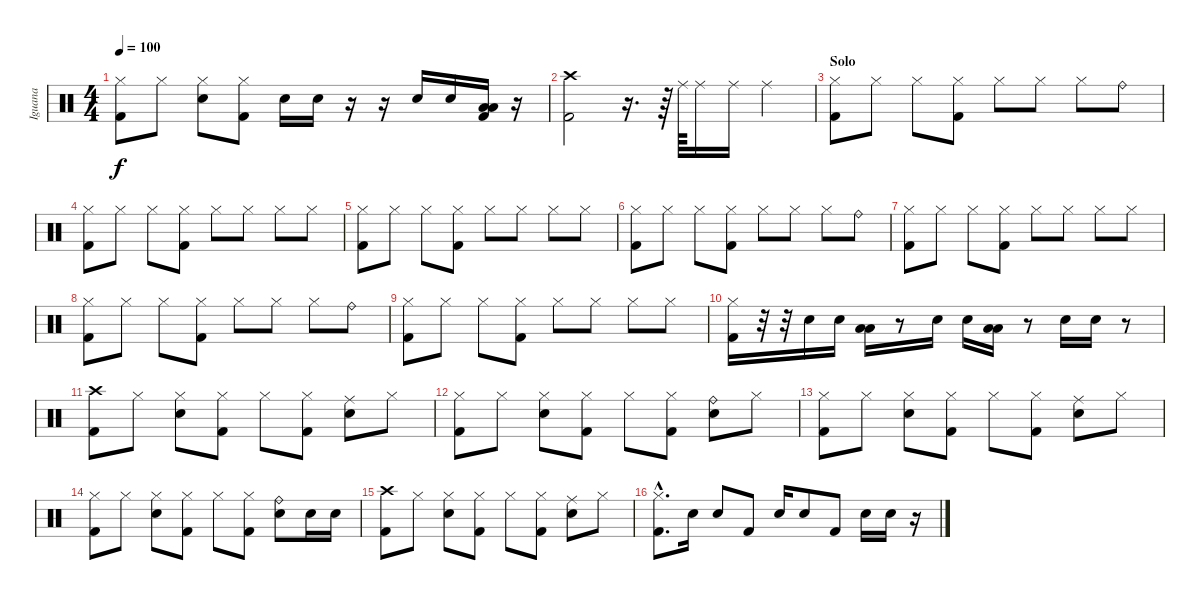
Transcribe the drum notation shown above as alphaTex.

\track ("Iguana" "Iguana") {instrument percussion}
\staff {score}
\articulation defaults
\ts (4 4)
\tempo 100
\clef neutral
\ks c
("Hi-Hat (closed)" "Kick (hit) 2").8{dy f} "Hi-Hat (closed)".8 ("Hi-Hat (closed)" "Electric Snare (hit)").8 ("Hi-Hat (closed)" "Kick (hit) 2").8 "Electric Snare (hit)".16 "Electric Snare (hit)".16 r.16 r.16 "Electric Snare (hit)".16 "Electric Snare (hit)".16 ("Low Tom (hit)" "Low Tom (hit)" "Kick (hit) 2").16 r.16 |
("Crash high (hit)" "Kick (hit) 2").2 r.16{d} r.64 "Ride (middle)".64 "Ride (middle)".16 "Ride (middle)".16 "Ride (middle)".4 |
\section ("" "Solo")
("Hi-Hat (closed)" "Kick (hit) 2").8 "Hi-Hat (closed)".8 "Hi-Hat (closed)".8 ("Hi-Hat (closed)" "Kick (hit) 2").8 "Hi-Hat (closed)".8 "Hi-Hat (closed)".8 "Hi-Hat (closed)".8 "Ride (bell)".8 |
("Hi-Hat (closed)" "Kick (hit) 2").8 "Hi-Hat (closed)".8 "Hi-Hat (closed)".8 ("Hi-Hat (closed)" "Kick (hit) 2").8 "Hi-Hat (closed)".8 "Hi-Hat (closed)".8 "Hi-Hat (closed)".8 "Hi-Hat (closed)".8 |
("Hi-Hat (closed)" "Kick (hit) 2").8 "Hi-Hat (closed)".8 "Hi-Hat (closed)".8 ("Hi-Hat (closed)" "Kick (hit) 2").8 "Hi-Hat (closed)".8 "Hi-Hat (closed)".8 "Hi-Hat (closed)".8 "Hi-Hat (closed)".8 |
("Hi-Hat (closed)" "Kick (hit) 2").8 "Hi-Hat (closed)".8 "Hi-Hat (closed)".8 ("Hi-Hat (closed)" "Kick (hit) 2").8 "Hi-Hat (closed)".8 "Hi-Hat (closed)".8 "Hi-Hat (closed)".8 "Ride (bell)".8 |
("Hi-Hat (closed)" "Kick (hit) 2").8 "Hi-Hat (closed)".8 "Hi-Hat (closed)".8 ("Hi-Hat (closed)" "Kick (hit) 2").8 "Hi-Hat (closed)".8 "Hi-Hat (closed)".8 "Hi-Hat (closed)".8 "Hi-Hat (closed)".8 |
("Hi-Hat (closed)" "Kick (hit) 2").8 "Hi-Hat (closed)".8 "Hi-Hat (closed)".8 ("Hi-Hat (closed)" "Kick (hit) 2").8 "Hi-Hat (closed)".8 "Hi-Hat (closed)".8 "Hi-Hat (closed)".8 "Ride (bell)".8 |
("Hi-Hat (closed)" "Kick (hit) 2").8 "Hi-Hat (closed)".8 "Hi-Hat (closed)".8 ("Hi-Hat (closed)" "Kick (hit) 2").8 "Hi-Hat (closed)".8 "Hi-Hat (closed)".8 "Hi-Hat (closed)".8 "Hi-Hat (closed)".8 |
("Hi-Hat (closed)" "Kick (hit) 2").16 r.32 r.32 "Electric Snare (hit)".16 "Electric Snare (hit)".16 ("Low Tom (hit)" "Low Tom (hit)").16 r.8 "Electric Snare (hit)".16 "Electric Snare (hit)".16 ("Low Tom (hit)" "Low Tom (hit)").16 r.8 "Electric Snare (hit)".16 "Electric Snare (hit)".16 r.8 |
("Crash high (hit)" "Kick (hit) 2").8 "Hi-Hat (closed)".8 ("Hi-Hat (closed)" "Electric Snare (hit)").8 ("Hi-Hat (closed)" "Kick (hit) 2").8 "Hi-Hat (closed)".8 ("Hi-Hat (closed)" "Kick (hit) 2").8 ("Ride (middle)" "Electric Snare (hit)").8 "Hi-Hat (closed)".8 |
("Hi-Hat (closed)" "Kick (hit) 2").8 "Hi-Hat (closed)".8 ("Hi-Hat (closed)" "Electric Snare (hit)").8 ("Hi-Hat (closed)" "Kick (hit) 2").8 "Hi-Hat (closed)".8 ("Hi-Hat (closed)" "Kick (hit) 2").8 ("Ride (bell)" "Electric Snare (hit)").8 "Hi-Hat (closed)".8 |
("Hi-Hat (closed)" "Kick (hit) 2").8 "Hi-Hat (closed)".8 ("Hi-Hat (closed)" "Electric Snare (hit)").8 ("Hi-Hat (closed)" "Kick (hit) 2").8 "Hi-Hat (closed)".8 ("Hi-Hat (closed)" "Kick (hit) 2").8 ("Ride (middle)" "Electric Snare (hit)").8 "Hi-Hat (closed)".8 |
("Hi-Hat (closed)" "Kick (hit) 2").8 "Hi-Hat (closed)".8 ("Hi-Hat (closed)" "Electric Snare (hit)").8 ("Hi-Hat (closed)" "Kick (hit) 2").8 "Hi-Hat (closed)".8 ("Hi-Hat (closed)" "Kick (hit) 2").8 ("Ride (bell)" "Electric Snare (hit)").8 "Electric Snare (hit)".16 "Electric Snare (hit)".16 |
("Crash high (hit)" "Kick (hit) 2").8 "Hi-Hat (closed)".8 ("Hi-Hat (closed)" "Electric Snare (hit)").8 ("Hi-Hat (closed)" "Kick (hit) 2").8 "Hi-Hat (closed)".8 ("Hi-Hat (closed)" "Kick (hit) 2").8 ("Ride (middle)" "Electric Snare (hit)").8 "Hi-Hat (closed)".8 |
("Hi-Hat (closed)"{hac} "Kick (hit) 2"{hac}).8{d} "Electric Snare (hit)".16 "Electric Snare (hit)".8 "Kick (hit) 2".8 "Electric Snare (hit)".16 "Electric Snare (hit)".8 "Kick (hit) 2".8 "Electric Snare (hit)".16 "Electric Snare (hit)".16 r.16
